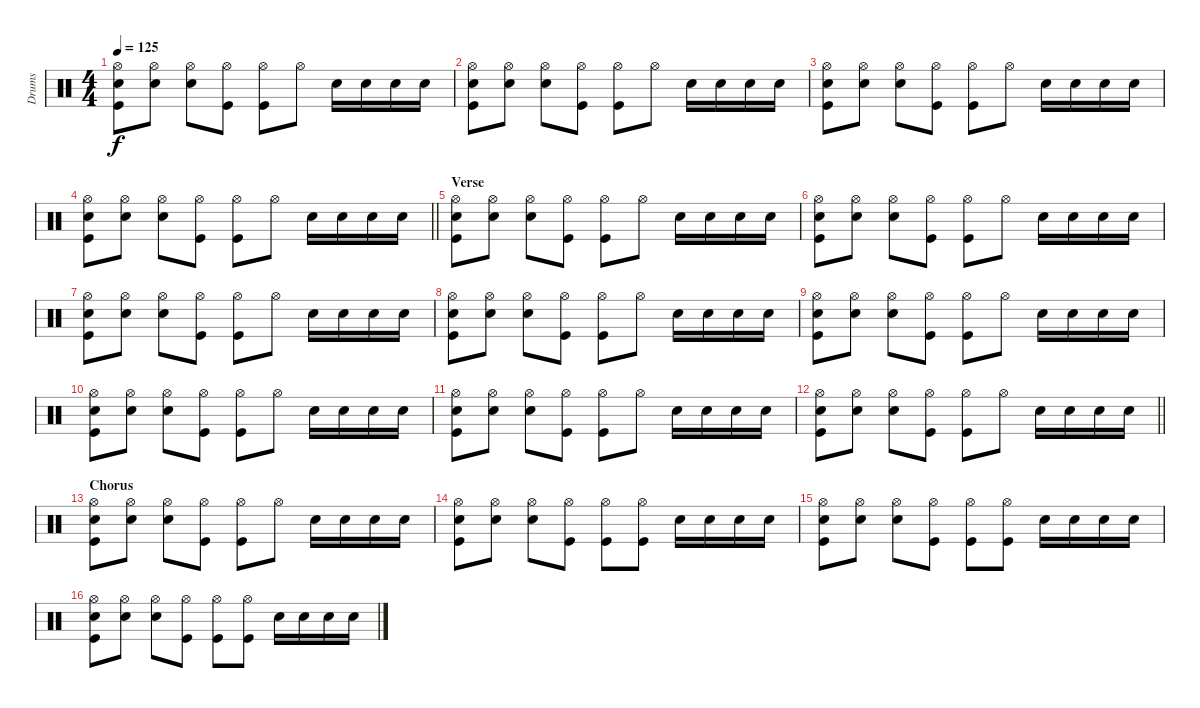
\track ("Drums" "Drums") {instrument percussion}
\staff {score}
\articulation defaults
\ts (4 4)
\tempo 125
\clef neutral
\ks c
("Hi-Hat (open)" "Electric Snare (hit)" "Kick (hit)").8{dy f} ("Hi-Hat (open)" "Electric Snare (hit)").8 ("Hi-Hat (open)" "Electric Snare (hit)").8 ("Hi-Hat (open)" "Kick (hit)").8 ("Hi-Hat (open)" "Kick (hit)").8 "Hi-Hat (open)".8 "Electric Snare (hit)".16 "Electric Snare (hit)".16 "Electric Snare (hit)".16 "Electric Snare (hit)".16 |
("Hi-Hat (open)" "Electric Snare (hit)" "Kick (hit)").8 ("Hi-Hat (open)" "Electric Snare (hit)").8 ("Hi-Hat (open)" "Electric Snare (hit)").8 ("Hi-Hat (open)" "Kick (hit)").8 ("Hi-Hat (open)" "Kick (hit)").8 "Hi-Hat (open)".8 "Electric Snare (hit)".16 "Electric Snare (hit)".16 "Electric Snare (hit)".16 "Electric Snare (hit)".16 |
("Hi-Hat (open)" "Electric Snare (hit)" "Kick (hit)").8 ("Hi-Hat (open)" "Electric Snare (hit)").8 ("Hi-Hat (open)" "Electric Snare (hit)").8 ("Hi-Hat (open)" "Kick (hit)").8 ("Hi-Hat (open)" "Kick (hit)").8 "Hi-Hat (open)".8 "Electric Snare (hit)".16 "Electric Snare (hit)".16 "Electric Snare (hit)".16 "Electric Snare (hit)".16 |
\barLineRight lightlight
("Hi-Hat (open)" "Electric Snare (hit)" "Kick (hit)").8 ("Hi-Hat (open)" "Electric Snare (hit)").8 ("Hi-Hat (open)" "Electric Snare (hit)").8 ("Hi-Hat (open)" "Kick (hit)").8 ("Hi-Hat (open)" "Kick (hit)").8 "Hi-Hat (open)".8 "Electric Snare (hit)".16 "Electric Snare (hit)".16 "Electric Snare (hit)".16 "Electric Snare (hit)".16 |
\section ("" "Verse")
("Hi-Hat (open)" "Electric Snare (hit)" "Kick (hit)").8 ("Hi-Hat (open)" "Electric Snare (hit)").8 ("Hi-Hat (open)" "Electric Snare (hit)").8 ("Hi-Hat (open)" "Kick (hit)").8 ("Hi-Hat (open)" "Kick (hit)").8 "Hi-Hat (open)".8 "Electric Snare (hit)".16 "Electric Snare (hit)".16 "Electric Snare (hit)".16 "Electric Snare (hit)".16 |
("Hi-Hat (open)" "Electric Snare (hit)" "Kick (hit)").8 ("Hi-Hat (open)" "Electric Snare (hit)").8 ("Hi-Hat (open)" "Electric Snare (hit)").8 ("Hi-Hat (open)" "Kick (hit)").8 ("Hi-Hat (open)" "Kick (hit)").8 "Hi-Hat (open)".8 "Electric Snare (hit)".16 "Electric Snare (hit)".16 "Electric Snare (hit)".16 "Electric Snare (hit)".16 |
("Hi-Hat (open)" "Electric Snare (hit)" "Kick (hit)").8 ("Hi-Hat (open)" "Electric Snare (hit)").8 ("Hi-Hat (open)" "Electric Snare (hit)").8 ("Hi-Hat (open)" "Kick (hit)").8 ("Hi-Hat (open)" "Kick (hit)").8 "Hi-Hat (open)".8 "Electric Snare (hit)".16 "Electric Snare (hit)".16 "Electric Snare (hit)".16 "Electric Snare (hit)".16 |
("Hi-Hat (open)" "Electric Snare (hit)" "Kick (hit)").8 ("Hi-Hat (open)" "Electric Snare (hit)").8 ("Hi-Hat (open)" "Electric Snare (hit)").8 ("Hi-Hat (open)" "Kick (hit)").8 ("Hi-Hat (open)" "Kick (hit)").8 "Hi-Hat (open)".8 "Electric Snare (hit)".16 "Electric Snare (hit)".16 "Electric Snare (hit)".16 "Electric Snare (hit)".16 |
("Hi-Hat (open)" "Electric Snare (hit)" "Kick (hit)").8 ("Hi-Hat (open)" "Electric Snare (hit)").8 ("Hi-Hat (open)" "Electric Snare (hit)").8 ("Hi-Hat (open)" "Kick (hit)").8 ("Hi-Hat (open)" "Kick (hit)").8 "Hi-Hat (open)".8 "Electric Snare (hit)".16 "Electric Snare (hit)".16 "Electric Snare (hit)".16 "Electric Snare (hit)".16 |
("Hi-Hat (open)" "Electric Snare (hit)" "Kick (hit)").8 ("Hi-Hat (open)" "Electric Snare (hit)").8 ("Hi-Hat (open)" "Electric Snare (hit)").8 ("Hi-Hat (open)" "Kick (hit)").8 ("Hi-Hat (open)" "Kick (hit)").8 "Hi-Hat (open)".8 "Electric Snare (hit)".16 "Electric Snare (hit)".16 "Electric Snare (hit)".16 "Electric Snare (hit)".16 |
("Hi-Hat (open)" "Electric Snare (hit)" "Kick (hit)").8 ("Hi-Hat (open)" "Electric Snare (hit)").8 ("Hi-Hat (open)" "Electric Snare (hit)").8 ("Hi-Hat (open)" "Kick (hit)").8 ("Hi-Hat (open)" "Kick (hit)").8 "Hi-Hat (open)".8 "Electric Snare (hit)".16 "Electric Snare (hit)".16 "Electric Snare (hit)".16 "Electric Snare (hit)".16 |
\barLineRight lightlight
("Hi-Hat (open)" "Electric Snare (hit)" "Kick (hit)").8 ("Hi-Hat (open)" "Electric Snare (hit)").8 ("Hi-Hat (open)" "Electric Snare (hit)").8 ("Hi-Hat (open)" "Kick (hit)").8 ("Hi-Hat (open)" "Kick (hit)").8 "Hi-Hat (open)".8 "Electric Snare (hit)".16 "Electric Snare (hit)".16 "Electric Snare (hit)".16 "Electric Snare (hit)".16 |
\section ("" "Chorus")
("Hi-Hat (open)" "Electric Snare (hit)" "Kick (hit)").8 ("Hi-Hat (open)" "Electric Snare (hit)").8 ("Hi-Hat (open)" "Electric Snare (hit)").8 ("Hi-Hat (open)" "Kick (hit)").8 ("Hi-Hat (open)" "Kick (hit)").8 "Hi-Hat (open)".8 "Electric Snare (hit)".16 "Electric Snare (hit)".16 "Electric Snare (hit)".16 "Electric Snare (hit)".16 |
("Hi-Hat (open)" "Electric Snare (hit)" "Kick (hit)").8 ("Hi-Hat (open)" "Electric Snare (hit)").8 ("Hi-Hat (open)" "Electric Snare (hit)").8 ("Hi-Hat (open)" "Kick (hit)").8 ("Hi-Hat (open)" "Kick (hit)").8 ("Hi-Hat (open)" "Kick (hit)").8 "Electric Snare (hit)".16 "Electric Snare (hit)".16 "Electric Snare (hit)".16 "Electric Snare (hit)".16 |
("Hi-Hat (open)" "Electric Snare (hit)" "Kick (hit)").8 ("Hi-Hat (open)" "Electric Snare (hit)").8 ("Hi-Hat (open)" "Electric Snare (hit)").8 ("Hi-Hat (open)" "Kick (hit)").8 ("Hi-Hat (open)" "Kick (hit)").8 ("Hi-Hat (open)" "Kick (hit)").8 "Electric Snare (hit)".16 "Electric Snare (hit)".16 "Electric Snare (hit)".16 "Electric Snare (hit)".16 |
("Hi-Hat (open)" "Electric Snare (hit)" "Kick (hit)").8 ("Hi-Hat (open)" "Electric Snare (hit)").8 ("Hi-Hat (open)" "Electric Snare (hit)").8 ("Hi-Hat (open)" "Kick (hit)").8 ("Hi-Hat (open)" "Kick (hit)").8 ("Hi-Hat (open)" "Kick (hit)").8 "Electric Snare (hit)".16 "Electric Snare (hit)".16 "Electric Snare (hit)".16 "Electric Snare (hit)".16
